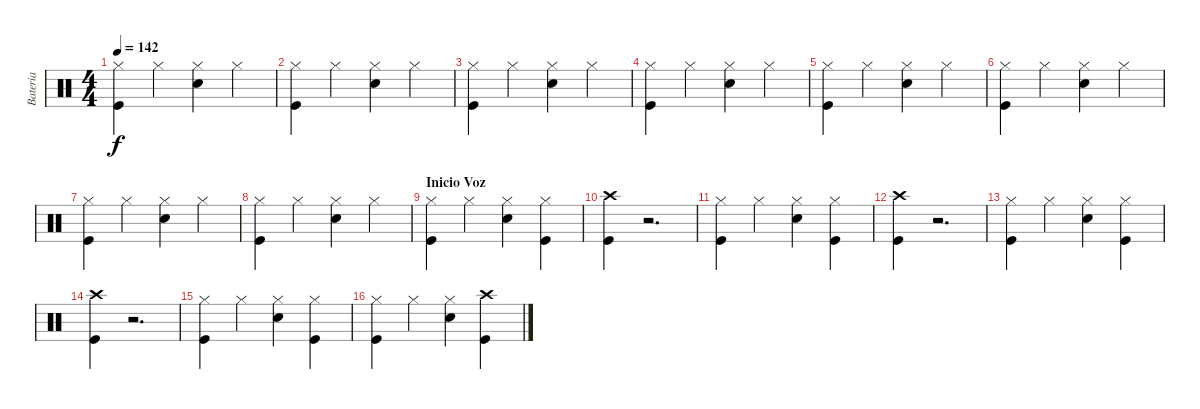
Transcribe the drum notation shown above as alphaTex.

\track ("Bateria" "Bateria") {instrument percussion}
\staff {score}
\articulation defaults
\ts (4 4)
\tempo 142
\clef neutral
\ks c
("Hi-Hat (closed)" "Kick (hit)").4{dy f} "Hi-Hat (closed)".4 ("Hi-Hat (closed)" "Snare (hit) 2").4 "Hi-Hat (closed)".4 |
("Hi-Hat (closed)" "Kick (hit)").4 "Hi-Hat (closed)".4 ("Hi-Hat (closed)" "Snare (hit) 2").4 "Hi-Hat (closed)".4 |
("Hi-Hat (closed)" "Kick (hit)").4 "Hi-Hat (closed)".4 ("Hi-Hat (closed)" "Snare (hit) 2").4 "Hi-Hat (closed)".4 |
("Hi-Hat (closed)" "Kick (hit)").4 "Hi-Hat (closed)".4 ("Hi-Hat (closed)" "Snare (hit) 2").4 "Hi-Hat (closed)".4 |
("Hi-Hat (closed)" "Kick (hit)").4 "Hi-Hat (closed)".4 ("Hi-Hat (closed)" "Snare (hit) 2").4 "Hi-Hat (closed)".4 |
("Hi-Hat (closed)" "Kick (hit)").4 "Hi-Hat (closed)".4 ("Hi-Hat (closed)" "Snare (hit) 2").4 "Hi-Hat (closed)".4 |
("Hi-Hat (closed)" "Kick (hit)").4 "Hi-Hat (closed)".4 ("Hi-Hat (closed)" "Snare (hit) 2").4 "Hi-Hat (closed)".4 |
("Hi-Hat (closed)" "Kick (hit)").4 "Hi-Hat (closed)".4 ("Hi-Hat (closed)" "Snare (hit) 2").4 "Hi-Hat (closed)".4 |
\section ("" "Inicio Voz")
("Hi-Hat (closed)" "Kick (hit)").4 "Hi-Hat (closed)".4 ("Hi-Hat (closed)" "Snare (hit) 2").4 ("Hi-Hat (closed)" "Kick (hit)").4 |
("Crash high (hit)" "Kick (hit)").4 r.2{d} |
("Hi-Hat (closed)" "Kick (hit)").4 "Hi-Hat (closed)".4 ("Hi-Hat (closed)" "Snare (hit) 2").4 ("Hi-Hat (closed)" "Kick (hit)").4 |
("Crash high (hit)" "Kick (hit)").4 r.2{d} |
("Hi-Hat (closed)" "Kick (hit)").4 "Hi-Hat (closed)".4 ("Hi-Hat (closed)" "Snare (hit) 2").4 ("Hi-Hat (closed)" "Kick (hit)").4 |
("Crash high (hit)" "Kick (hit)").4 r.2{d} |
("Hi-Hat (closed)" "Kick (hit)").4 "Hi-Hat (closed)".4 ("Hi-Hat (closed)" "Snare (hit) 2").4 ("Hi-Hat (closed)" "Kick (hit)").4 |
("Hi-Hat (closed)" "Kick (hit)").4 "Hi-Hat (closed)".4 ("Hi-Hat (closed)" "Snare (hit) 2").4 ("Crash high (hit)" "Kick (hit)").4
